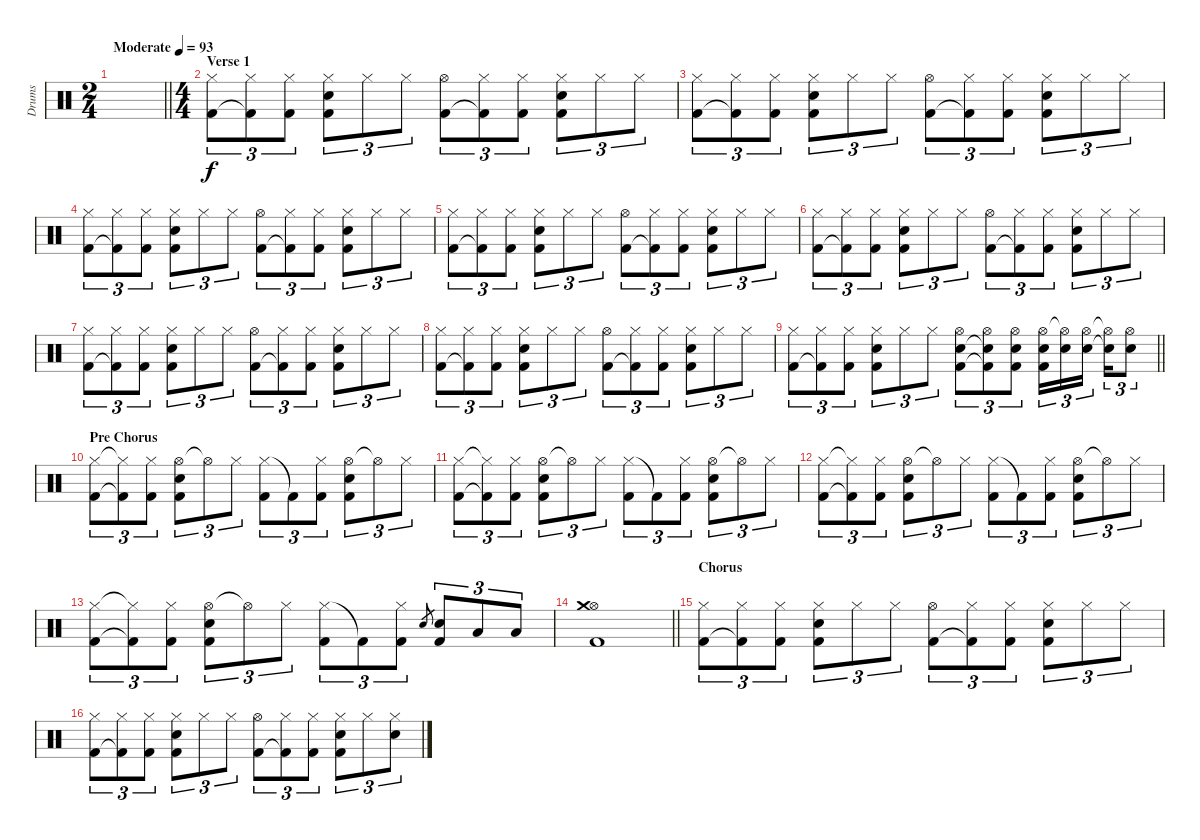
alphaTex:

\track ("Drums" "Drums") {instrument percussion}
\staff {score}
\articulation defaults
\ts (2 4)
\tempo (93 "Moderate")
\clef neutral
\barLineRight lightlight
\ks c
|
\ts (4 4)
\section ("" "Verse 1")
("Hi-Hat (closed)" "Kick (hit) 2").8{tu (3 2)} ("Hi-Hat (closed)" "Kick (hit) 2"{t}).8{tu (3 2)} ("Hi-Hat (closed)" "Kick (hit) 2").8{tu (3 2)} ("Hi-Hat (closed)" "Snare (hit) 2" "Kick (hit) 2").8{tu (3 2)} "Hi-Hat (closed)".8{tu (3 2)} "Hi-Hat (closed)".8{tu (3 2)} ("Hi-Hat (open)" "Kick (hit) 2").8{tu (3 2)} ("Hi-Hat (closed)" "Kick (hit) 2"{t}).8{tu (3 2)} ("Hi-Hat (closed)" "Kick (hit) 2").8{tu (3 2)} ("Hi-Hat (closed)" "Snare (hit) 2" "Kick (hit) 2").8{tu (3 2)} "Hi-Hat (closed)".8{tu (3 2)} "Hi-Hat (closed)".8{tu (3 2)} |
("Hi-Hat (closed)" "Kick (hit) 2").8{tu (3 2)} ("Hi-Hat (closed)" "Kick (hit) 2"{t}).8{tu (3 2)} ("Hi-Hat (closed)" "Kick (hit) 2").8{tu (3 2)} ("Hi-Hat (closed)" "Snare (hit) 2" "Kick (hit) 2").8{tu (3 2)} "Hi-Hat (closed)".8{tu (3 2)} "Hi-Hat (closed)".8{tu (3 2)} ("Hi-Hat (open)" "Kick (hit) 2").8{tu (3 2)} ("Hi-Hat (closed)" "Kick (hit) 2"{t}).8{tu (3 2)} ("Hi-Hat (closed)" "Kick (hit) 2").8{tu (3 2)} ("Hi-Hat (closed)" "Snare (hit) 2" "Kick (hit) 2").8{tu (3 2)} "Hi-Hat (closed)".8{tu (3 2)} "Hi-Hat (closed)".8{tu (3 2)} |
("Hi-Hat (closed)" "Kick (hit) 2").8{tu (3 2)} ("Hi-Hat (closed)" "Kick (hit) 2"{t}).8{tu (3 2)} ("Hi-Hat (closed)" "Kick (hit) 2").8{tu (3 2)} ("Hi-Hat (closed)" "Snare (hit) 2" "Kick (hit) 2").8{tu (3 2)} "Hi-Hat (closed)".8{tu (3 2)} "Hi-Hat (closed)".8{tu (3 2)} ("Hi-Hat (open)" "Kick (hit) 2").8{tu (3 2)} ("Hi-Hat (closed)" "Kick (hit) 2"{t}).8{tu (3 2)} ("Hi-Hat (closed)" "Kick (hit) 2").8{tu (3 2)} ("Hi-Hat (closed)" "Snare (hit) 2" "Kick (hit) 2").8{tu (3 2)} "Hi-Hat (closed)".8{tu (3 2)} "Hi-Hat (closed)".8{tu (3 2)} |
("Hi-Hat (closed)" "Kick (hit) 2").8{tu (3 2)} ("Hi-Hat (closed)" "Kick (hit) 2"{t}).8{tu (3 2)} ("Hi-Hat (closed)" "Kick (hit) 2").8{tu (3 2)} ("Hi-Hat (closed)" "Snare (hit) 2" "Kick (hit) 2").8{tu (3 2)} "Hi-Hat (closed)".8{tu (3 2)} "Hi-Hat (closed)".8{tu (3 2)} ("Hi-Hat (open)" "Kick (hit) 2").8{tu (3 2)} ("Hi-Hat (closed)" "Kick (hit) 2"{t}).8{tu (3 2)} ("Hi-Hat (closed)" "Kick (hit) 2").8{tu (3 2)} ("Hi-Hat (closed)" "Snare (hit) 2" "Kick (hit) 2").8{tu (3 2)} "Hi-Hat (closed)".8{tu (3 2)} "Hi-Hat (closed)".8{tu (3 2)} |
("Hi-Hat (closed)" "Kick (hit) 2").8{tu (3 2)} ("Hi-Hat (closed)" "Kick (hit) 2"{t}).8{tu (3 2)} ("Hi-Hat (closed)" "Kick (hit) 2").8{tu (3 2)} ("Hi-Hat (closed)" "Snare (hit) 2" "Kick (hit) 2").8{tu (3 2)} "Hi-Hat (closed)".8{tu (3 2)} "Hi-Hat (closed)".8{tu (3 2)} ("Hi-Hat (open)" "Kick (hit) 2").8{tu (3 2)} ("Hi-Hat (closed)" "Kick (hit) 2"{t}).8{tu (3 2)} ("Hi-Hat (closed)" "Kick (hit) 2").8{tu (3 2)} ("Hi-Hat (closed)" "Snare (hit) 2" "Kick (hit) 2").8{tu (3 2)} "Hi-Hat (closed)".8{tu (3 2)} "Hi-Hat (closed)".8{tu (3 2)} |
("Hi-Hat (closed)" "Kick (hit) 2").8{tu (3 2)} ("Hi-Hat (closed)" "Kick (hit) 2"{t}).8{tu (3 2)} ("Hi-Hat (closed)" "Kick (hit) 2").8{tu (3 2)} ("Hi-Hat (closed)" "Snare (hit) 2" "Kick (hit) 2").8{tu (3 2)} "Hi-Hat (closed)".8{tu (3 2)} "Hi-Hat (closed)".8{tu (3 2)} ("Hi-Hat (open)" "Kick (hit) 2").8{tu (3 2)} ("Hi-Hat (closed)" "Kick (hit) 2"{t}).8{tu (3 2)} ("Hi-Hat (closed)" "Kick (hit) 2").8{tu (3 2)} ("Hi-Hat (closed)" "Snare (hit) 2" "Kick (hit) 2").8{tu (3 2)} "Hi-Hat (closed)".8{tu (3 2)} "Hi-Hat (closed)".8{tu (3 2)} |
("Hi-Hat (closed)" "Kick (hit) 2").8{tu (3 2)} ("Hi-Hat (closed)" "Kick (hit) 2"{t}).8{tu (3 2)} ("Hi-Hat (closed)" "Kick (hit) 2").8{tu (3 2)} ("Hi-Hat (closed)" "Snare (hit) 2" "Kick (hit) 2").8{tu (3 2)} "Hi-Hat (closed)".8{tu (3 2)} "Hi-Hat (closed)".8{tu (3 2)} ("Hi-Hat (open)" "Kick (hit) 2").8{tu (3 2)} ("Hi-Hat (closed)" "Kick (hit) 2"{t}).8{tu (3 2)} ("Hi-Hat (closed)" "Kick (hit) 2").8{tu (3 2)} ("Hi-Hat (closed)" "Snare (hit) 2" "Kick (hit) 2").8{tu (3 2)} "Hi-Hat (closed)".8{tu (3 2)} "Hi-Hat (closed)".8{tu (3 2)} |
\barLineRight lightlight
("Hi-Hat (closed)" "Kick (hit) 2").8{tu (3 2)} ("Hi-Hat (closed)" "Kick (hit) 2"{t}).8{tu (3 2)} ("Hi-Hat (closed)" "Kick (hit) 2").8{tu (3 2)} ("Hi-Hat (closed)" "Snare (hit) 2" "Kick (hit) 2").8{tu (3 2)} "Hi-Hat (closed)".8{tu (3 2)} "Hi-Hat (closed)".8{tu (3 2)} ("Hi-Hat (open)" "Snare (hit) 2" "Kick (hit) 2").8{tu (3 2)} ("Hi-Hat (open)" "Snare (hit) 2"{t} "Kick (hit) 2"{t}).8{tu (3 2)} ("Hi-Hat (open)" "Snare (hit) 2" "Kick (hit) 2").8{tu (3 2)} ("Hi-Hat (open)" "Snare (hit) 2" "Kick (hit) 2").16{tu (3 2)} ("Hi-Hat (open)"{t} "Snare (hit) 2").16{tu (3 2)} ("Hi-Hat (open)" "Snare (hit) 2").16{tu (3 2) beam splitsecondary} ("Hi-Hat (open)"{t} "Snare (hit) 2"{t}).16{tu (3 2)} ("Hi-Hat (open)" "Snare (hit) 2").8{tu (3 2)} |
\section ("" "Pre Chorus")
("Hi-Hat (closed)" "Kick (hit) 2").8{tu (3 2)} ("Hi-Hat (closed)"{t} "Kick (hit) 2"{t}).8{tu (3 2)} ("Hi-Hat (closed)" "Kick (hit) 2").8{tu (3 2)} ("Hi-Hat (open)" "Snare (hit) 2" "Kick (hit) 2").8{tu (3 2)} "Hi-Hat (open)"{t}.8{tu (3 2)} "Hi-Hat (closed)".8{tu (3 2)} ("Hi-Hat (closed)" "Kick (hit) 2").8{tu (3 2)} "Kick (hit) 2"{t}.8{tu (3 2)} ("Hi-Hat (closed)" "Kick (hit) 2").8{tu (3 2)} ("Hi-Hat (open)" "Snare (hit) 2" "Kick (hit) 2").8{tu (3 2)} "Hi-Hat (open)"{t}.8{tu (3 2)} "Hi-Hat (closed)".8{tu (3 2)} |
("Hi-Hat (closed)" "Kick (hit) 2").8{tu (3 2)} ("Hi-Hat (closed)"{t} "Kick (hit) 2"{t}).8{tu (3 2)} ("Hi-Hat (closed)" "Kick (hit) 2").8{tu (3 2)} ("Hi-Hat (open)" "Snare (hit) 2" "Kick (hit) 2").8{tu (3 2)} "Hi-Hat (open)"{t}.8{tu (3 2)} "Hi-Hat (closed)".8{tu (3 2)} ("Hi-Hat (closed)" "Kick (hit) 2").8{tu (3 2)} "Kick (hit) 2"{t}.8{tu (3 2)} ("Hi-Hat (closed)" "Kick (hit) 2").8{tu (3 2)} ("Hi-Hat (open)" "Snare (hit) 2" "Kick (hit) 2").8{tu (3 2)} "Hi-Hat (open)"{t}.8{tu (3 2)} "Hi-Hat (closed)".8{tu (3 2)} |
("Hi-Hat (closed)" "Kick (hit) 2").8{tu (3 2)} ("Hi-Hat (closed)"{t} "Kick (hit) 2"{t}).8{tu (3 2)} ("Hi-Hat (closed)" "Kick (hit) 2").8{tu (3 2)} ("Hi-Hat (open)" "Snare (hit) 2" "Kick (hit) 2").8{tu (3 2)} "Hi-Hat (open)"{t}.8{tu (3 2)} "Hi-Hat (closed)".8{tu (3 2)} ("Hi-Hat (closed)" "Kick (hit) 2").8{tu (3 2)} "Kick (hit) 2"{t}.8{tu (3 2)} ("Hi-Hat (closed)" "Kick (hit) 2").8{tu (3 2)} ("Hi-Hat (open)" "Snare (hit) 2" "Kick (hit) 2").8{tu (3 2)} "Hi-Hat (open)"{t}.8{tu (3 2)} "Hi-Hat (closed)".8{tu (3 2)} |
("Hi-Hat (closed)" "Kick (hit) 2").8{tu (3 2)} ("Hi-Hat (closed)"{t} "Kick (hit) 2"{t}).8{tu (3 2)} ("Hi-Hat (closed)" "Kick (hit) 2").8{tu (3 2)} ("Hi-Hat (open)" "Snare (hit) 2" "Kick (hit) 2").8{tu (3 2)} "Hi-Hat (open)"{t}.8{tu (3 2)} "Hi-Hat (closed)".8{tu (3 2)} ("Hi-Hat (closed)" "Kick (hit) 2").8{tu (3 2)} "Kick (hit) 2"{t}.8{tu (3 2)} ("Hi-Hat (closed)" "Kick (hit) 2").8{tu (3 2)} "Snare (hit) 2".8{gr} ("Snare (hit) 2" "Kick (hit) 2").8{tu (3 2)} "Low Floor Tom (hit)".8{tu (3 2)} "Low Floor Tom (hit)".8{tu (3 2)} |
\barLineRight lightlight
("Hi-Hat (open)" "Crash medium (hit)" "Kick (hit) 2").1 |
\section ("" "Chorus")
("Hi-Hat (closed)" "Kick (hit) 2").8{tu (3 2)} ("Hi-Hat (closed)" "Kick (hit) 2"{t}).8{tu (3 2)} ("Hi-Hat (closed)" "Kick (hit) 2").8{tu (3 2)} ("Hi-Hat (closed)" "Snare (hit) 2" "Kick (hit) 2").8{tu (3 2)} "Hi-Hat (closed)".8{tu (3 2)} "Hi-Hat (closed)".8{tu (3 2)} ("Hi-Hat (open)" "Kick (hit) 2").8{tu (3 2)} ("Hi-Hat (closed)" "Kick (hit) 2"{t}).8{tu (3 2)} ("Hi-Hat (closed)" "Kick (hit) 2").8{tu (3 2)} ("Hi-Hat (closed)" "Snare (hit) 2" "Kick (hit) 2").8{tu (3 2)} "Hi-Hat (closed)".8{tu (3 2)} "Hi-Hat (closed)".8{tu (3 2)} |
("Hi-Hat (closed)" "Kick (hit) 2").8{tu (3 2)} ("Hi-Hat (closed)" "Kick (hit) 2"{t}).8{tu (3 2)} ("Hi-Hat (closed)" "Kick (hit) 2").8{tu (3 2)} ("Hi-Hat (closed)" "Snare (hit) 2" "Kick (hit) 2").8{tu (3 2)} "Hi-Hat (closed)".8{tu (3 2)} "Hi-Hat (closed)".8{tu (3 2)} ("Hi-Hat (open)" "Kick (hit) 2").8{tu (3 2)} ("Hi-Hat (closed)" "Kick (hit) 2"{t}).8{tu (3 2)} ("Hi-Hat (closed)" "Kick (hit) 2").8{tu (3 2)} ("Hi-Hat (closed)" "Snare (hit) 2" "Kick (hit) 2").8{tu (3 2)} "Hi-Hat (closed)".8{tu (3 2)} ("Hi-Hat (closed)" "Snare (hit) 2").8{tu (3 2)}
